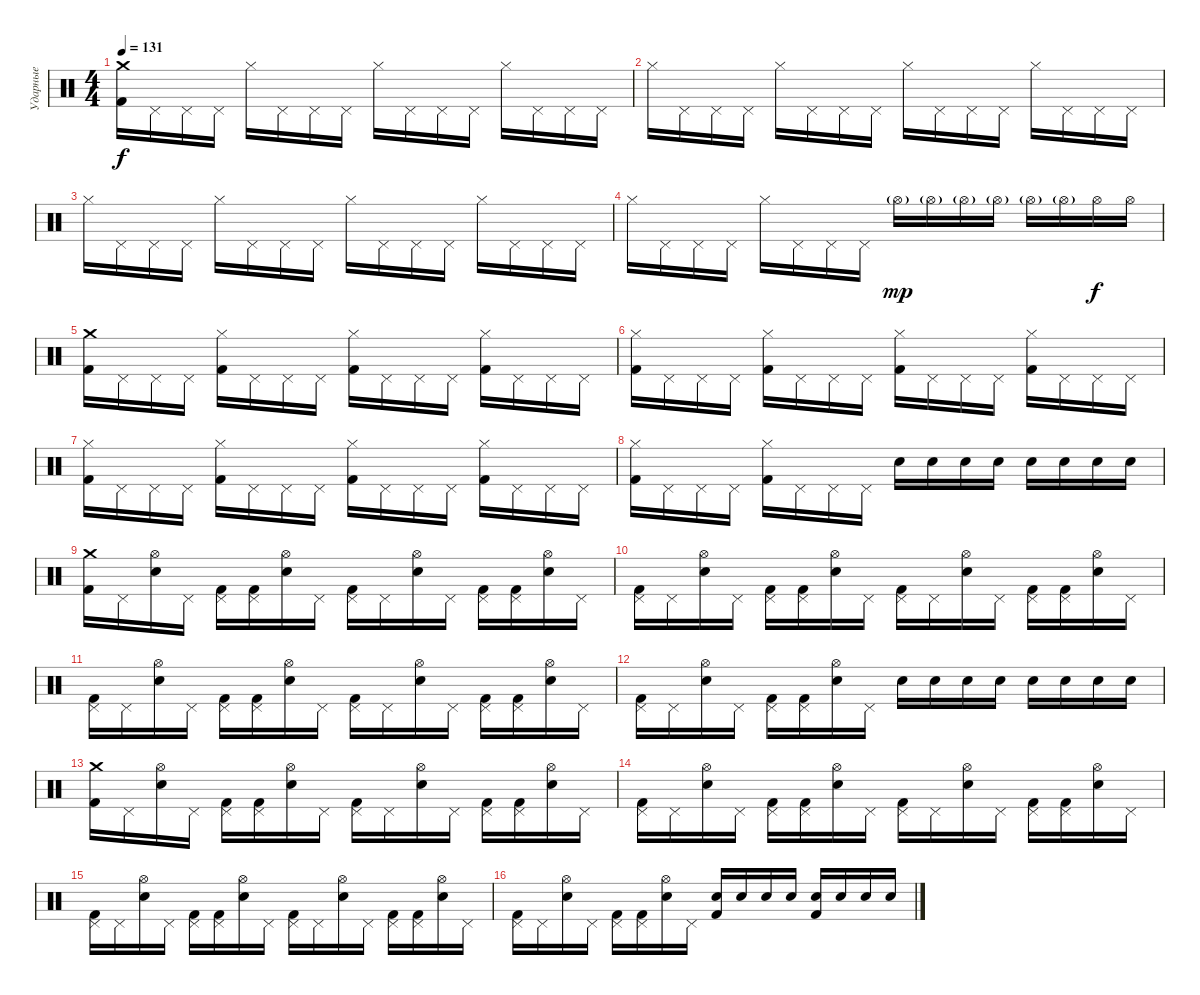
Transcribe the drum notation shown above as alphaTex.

\track ("Ударные" "Ударные") {instrument percussion}
\staff {score}
\articulation defaults
\ts (4 4)
\tempo 131
\clef neutral
\ks c
("Crash medium (hit)" "Kick (hit) 2").16{dy f} "Pedal Hi-Hat (hit)".16 "Pedal Hi-Hat (hit)".16 "Pedal Hi-Hat (hit)".16 "Hi-Hat (closed)".16 "Pedal Hi-Hat (hit)".16 "Pedal Hi-Hat (hit)".16 "Pedal Hi-Hat (hit)".16 "Hi-Hat (closed)".16 "Pedal Hi-Hat (hit)".16 "Pedal Hi-Hat (hit)".16 "Pedal Hi-Hat (hit)".16 "Hi-Hat (closed)".16 "Pedal Hi-Hat (hit)".16 "Pedal Hi-Hat (hit)".16 "Pedal Hi-Hat (hit)".16 |
"Hi-Hat (closed)".16 "Pedal Hi-Hat (hit)".16 "Pedal Hi-Hat (hit)".16 "Pedal Hi-Hat (hit)".16 "Hi-Hat (closed)".16 "Pedal Hi-Hat (hit)".16 "Pedal Hi-Hat (hit)".16 "Pedal Hi-Hat (hit)".16 "Hi-Hat (closed)".16 "Pedal Hi-Hat (hit)".16 "Pedal Hi-Hat (hit)".16 "Pedal Hi-Hat (hit)".16 "Hi-Hat (closed)".16 "Pedal Hi-Hat (hit)".16 "Pedal Hi-Hat (hit)".16 "Pedal Hi-Hat (hit)".16 |
"Hi-Hat (closed)".16 "Pedal Hi-Hat (hit)".16 "Pedal Hi-Hat (hit)".16 "Pedal Hi-Hat (hit)".16 "Hi-Hat (closed)".16 "Pedal Hi-Hat (hit)".16 "Pedal Hi-Hat (hit)".16 "Pedal Hi-Hat (hit)".16 "Hi-Hat (closed)".16 "Pedal Hi-Hat (hit)".16 "Pedal Hi-Hat (hit)".16 "Pedal Hi-Hat (hit)".16 "Hi-Hat (closed)".16 "Pedal Hi-Hat (hit)".16 "Pedal Hi-Hat (hit)".16 "Pedal Hi-Hat (hit)".16 |
"Hi-Hat (closed)".16 "Pedal Hi-Hat (hit)".16 "Pedal Hi-Hat (hit)".16 "Pedal Hi-Hat (hit)".16 "Hi-Hat (closed)".16 "Pedal Hi-Hat (hit)".16 "Pedal Hi-Hat (hit)".16 "Pedal Hi-Hat (hit)".16 "Hi-Hat (open)"{g}.16{dy mp} "Hi-Hat (open)"{g}.16 "Hi-Hat (open)"{g}.16 "Hi-Hat (open)"{g}.16 "Hi-Hat (open)"{g}.16 "Hi-Hat (open)"{g}.16 "Hi-Hat (open)".16{dy f} "Hi-Hat (open)".16 |
("Crash medium (hit)" "Kick (hit) 2").16 "Pedal Hi-Hat (hit)".16 "Pedal Hi-Hat (hit)".16 "Pedal Hi-Hat (hit)".16 ("Hi-Hat (closed)" "Kick (hit) 2").16 "Pedal Hi-Hat (hit)".16 "Pedal Hi-Hat (hit)".16 "Pedal Hi-Hat (hit)".16 ("Hi-Hat (closed)" "Kick (hit) 2").16 "Pedal Hi-Hat (hit)".16 "Pedal Hi-Hat (hit)".16 "Pedal Hi-Hat (hit)".16 ("Hi-Hat (closed)" "Kick (hit) 2").16 "Pedal Hi-Hat (hit)".16 "Pedal Hi-Hat (hit)".16 "Pedal Hi-Hat (hit)".16 |
("Hi-Hat (closed)" "Kick (hit) 2").16 "Pedal Hi-Hat (hit)".16 "Pedal Hi-Hat (hit)".16 "Pedal Hi-Hat (hit)".16 ("Hi-Hat (closed)" "Kick (hit) 2").16 "Pedal Hi-Hat (hit)".16 "Pedal Hi-Hat (hit)".16 "Pedal Hi-Hat (hit)".16 ("Hi-Hat (closed)" "Kick (hit) 2").16 "Pedal Hi-Hat (hit)".16 "Pedal Hi-Hat (hit)".16 "Pedal Hi-Hat (hit)".16 ("Hi-Hat (closed)" "Kick (hit) 2").16 "Pedal Hi-Hat (hit)".16 "Pedal Hi-Hat (hit)".16 "Pedal Hi-Hat (hit)".16 |
("Hi-Hat (closed)" "Kick (hit) 2").16 "Pedal Hi-Hat (hit)".16 "Pedal Hi-Hat (hit)".16 "Pedal Hi-Hat (hit)".16 ("Hi-Hat (closed)" "Kick (hit) 2").16 "Pedal Hi-Hat (hit)".16 "Pedal Hi-Hat (hit)".16 "Pedal Hi-Hat (hit)".16 ("Hi-Hat (closed)" "Kick (hit) 2").16 "Pedal Hi-Hat (hit)".16 "Pedal Hi-Hat (hit)".16 "Pedal Hi-Hat (hit)".16 ("Hi-Hat (closed)" "Kick (hit) 2").16 "Pedal Hi-Hat (hit)".16 "Pedal Hi-Hat (hit)".16 "Pedal Hi-Hat (hit)".16 |
("Hi-Hat (closed)" "Kick (hit) 2").16 "Pedal Hi-Hat (hit)".16 "Pedal Hi-Hat (hit)".16 "Pedal Hi-Hat (hit)".16 ("Hi-Hat (closed)" "Kick (hit) 2").16 "Pedal Hi-Hat (hit)".16 "Pedal Hi-Hat (hit)".16 "Pedal Hi-Hat (hit)".16 "Electric Snare (hit)".16 "Electric Snare (hit)".16 "Electric Snare (hit)".16 "Electric Snare (hit)".16 "Electric Snare (hit)".16 "Electric Snare (hit)".16 "Electric Snare (hit)".16 "Electric Snare (hit)".16 |
("Crash medium (hit)" "Kick (hit) 2").16 "Pedal Hi-Hat (hit)".16 ("Hi-Hat (open)" "Electric Snare (hit)").16 "Pedal Hi-Hat (hit)".16 ("Pedal Hi-Hat (hit)" "Kick (hit) 2").16 ("Pedal Hi-Hat (hit)" "Kick (hit) 2").16 ("Hi-Hat (open)" "Electric Snare (hit)").16 "Pedal Hi-Hat (hit)".16 ("Pedal Hi-Hat (hit)" "Kick (hit) 2").16 "Pedal Hi-Hat (hit)".16 ("Hi-Hat (open)" "Electric Snare (hit)").16 "Pedal Hi-Hat (hit)".16 ("Pedal Hi-Hat (hit)" "Kick (hit) 2").16 ("Pedal Hi-Hat (hit)" "Kick (hit) 2").16 ("Hi-Hat (open)" "Electric Snare (hit)").16 "Pedal Hi-Hat (hit)".16 |
("Pedal Hi-Hat (hit)" "Kick (hit) 2").16 "Pedal Hi-Hat (hit)".16 ("Hi-Hat (open)" "Electric Snare (hit)").16 "Pedal Hi-Hat (hit)".16 ("Pedal Hi-Hat (hit)" "Kick (hit) 2").16 ("Pedal Hi-Hat (hit)" "Kick (hit) 2").16 ("Hi-Hat (open)" "Electric Snare (hit)").16 "Pedal Hi-Hat (hit)".16 ("Pedal Hi-Hat (hit)" "Kick (hit) 2").16 "Pedal Hi-Hat (hit)".16 ("Hi-Hat (open)" "Electric Snare (hit)").16 "Pedal Hi-Hat (hit)".16 ("Pedal Hi-Hat (hit)" "Kick (hit) 2").16 ("Pedal Hi-Hat (hit)" "Kick (hit) 2").16 ("Hi-Hat (open)" "Electric Snare (hit)").16 "Pedal Hi-Hat (hit)".16 |
("Pedal Hi-Hat (hit)" "Kick (hit) 2").16 "Pedal Hi-Hat (hit)".16 ("Hi-Hat (open)" "Electric Snare (hit)").16 "Pedal Hi-Hat (hit)".16 ("Pedal Hi-Hat (hit)" "Kick (hit) 2").16 ("Pedal Hi-Hat (hit)" "Kick (hit) 2").16 ("Hi-Hat (open)" "Electric Snare (hit)").16 "Pedal Hi-Hat (hit)".16 ("Pedal Hi-Hat (hit)" "Kick (hit) 2").16 "Pedal Hi-Hat (hit)".16 ("Hi-Hat (open)" "Electric Snare (hit)").16 "Pedal Hi-Hat (hit)".16 ("Pedal Hi-Hat (hit)" "Kick (hit) 2").16 ("Pedal Hi-Hat (hit)" "Kick (hit) 2").16 ("Hi-Hat (open)" "Electric Snare (hit)").16 "Pedal Hi-Hat (hit)".16 |
("Pedal Hi-Hat (hit)" "Kick (hit) 2").16 "Pedal Hi-Hat (hit)".16 ("Hi-Hat (open)" "Electric Snare (hit)").16 "Pedal Hi-Hat (hit)".16 ("Pedal Hi-Hat (hit)" "Kick (hit) 2").16 ("Pedal Hi-Hat (hit)" "Kick (hit) 2").16 ("Hi-Hat (open)" "Electric Snare (hit)").16 "Pedal Hi-Hat (hit)".16 "Electric Snare (hit)".16 "Electric Snare (hit)".16 "Electric Snare (hit)".16 "Electric Snare (hit)".16 "Electric Snare (hit)".16 "Electric Snare (hit)".16 "Electric Snare (hit)".16 "Electric Snare (hit)".16 |
("Crash medium (hit)" "Kick (hit) 2").16 "Pedal Hi-Hat (hit)".16 ("Hi-Hat (open)" "Electric Snare (hit)").16 "Pedal Hi-Hat (hit)".16 ("Pedal Hi-Hat (hit)" "Kick (hit) 2").16 ("Pedal Hi-Hat (hit)" "Kick (hit) 2").16 ("Hi-Hat (open)" "Electric Snare (hit)").16 "Pedal Hi-Hat (hit)".16 ("Pedal Hi-Hat (hit)" "Kick (hit) 2").16 "Pedal Hi-Hat (hit)".16 ("Hi-Hat (open)" "Electric Snare (hit)").16 "Pedal Hi-Hat (hit)".16 ("Pedal Hi-Hat (hit)" "Kick (hit) 2").16 ("Pedal Hi-Hat (hit)" "Kick (hit) 2").16 ("Hi-Hat (open)" "Electric Snare (hit)").16 "Pedal Hi-Hat (hit)".16 |
("Pedal Hi-Hat (hit)" "Kick (hit) 2").16 "Pedal Hi-Hat (hit)".16 ("Hi-Hat (open)" "Electric Snare (hit)").16 "Pedal Hi-Hat (hit)".16 ("Pedal Hi-Hat (hit)" "Kick (hit) 2").16 ("Pedal Hi-Hat (hit)" "Kick (hit) 2").16 ("Hi-Hat (open)" "Electric Snare (hit)").16 "Pedal Hi-Hat (hit)".16 ("Pedal Hi-Hat (hit)" "Kick (hit) 2").16 "Pedal Hi-Hat (hit)".16 ("Hi-Hat (open)" "Electric Snare (hit)").16 "Pedal Hi-Hat (hit)".16 ("Pedal Hi-Hat (hit)" "Kick (hit) 2").16 ("Pedal Hi-Hat (hit)" "Kick (hit) 2").16 ("Hi-Hat (open)" "Electric Snare (hit)").16 "Pedal Hi-Hat (hit)".16 |
("Pedal Hi-Hat (hit)" "Kick (hit) 2").16 "Pedal Hi-Hat (hit)".16 ("Hi-Hat (open)" "Electric Snare (hit)").16 "Pedal Hi-Hat (hit)".16 ("Pedal Hi-Hat (hit)" "Kick (hit) 2").16 ("Pedal Hi-Hat (hit)" "Kick (hit) 2").16 ("Hi-Hat (open)" "Electric Snare (hit)").16 "Pedal Hi-Hat (hit)".16 ("Pedal Hi-Hat (hit)" "Kick (hit) 2").16 "Pedal Hi-Hat (hit)".16 ("Hi-Hat (open)" "Electric Snare (hit)").16 "Pedal Hi-Hat (hit)".16 ("Pedal Hi-Hat (hit)" "Kick (hit) 2").16 ("Pedal Hi-Hat (hit)" "Kick (hit) 2").16 ("Hi-Hat (open)" "Electric Snare (hit)").16 "Pedal Hi-Hat (hit)".16 |
("Pedal Hi-Hat (hit)" "Kick (hit) 2").16 "Pedal Hi-Hat (hit)".16 ("Hi-Hat (open)" "Electric Snare (hit)").16 "Pedal Hi-Hat (hit)".16 ("Pedal Hi-Hat (hit)" "Kick (hit) 2").16 ("Pedal Hi-Hat (hit)" "Kick (hit) 2").16 ("Hi-Hat (open)" "Electric Snare (hit)").16 "Pedal Hi-Hat (hit)".16 ("Electric Snare (hit)" "Kick (hit) 2").16 "Electric Snare (hit)".16 "Electric Snare (hit)".16 "Electric Snare (hit)".16 ("Electric Snare (hit)" "Kick (hit) 2").16 "Electric Snare (hit)".16 "Electric Snare (hit)".16 "Electric Snare (hit)".16
